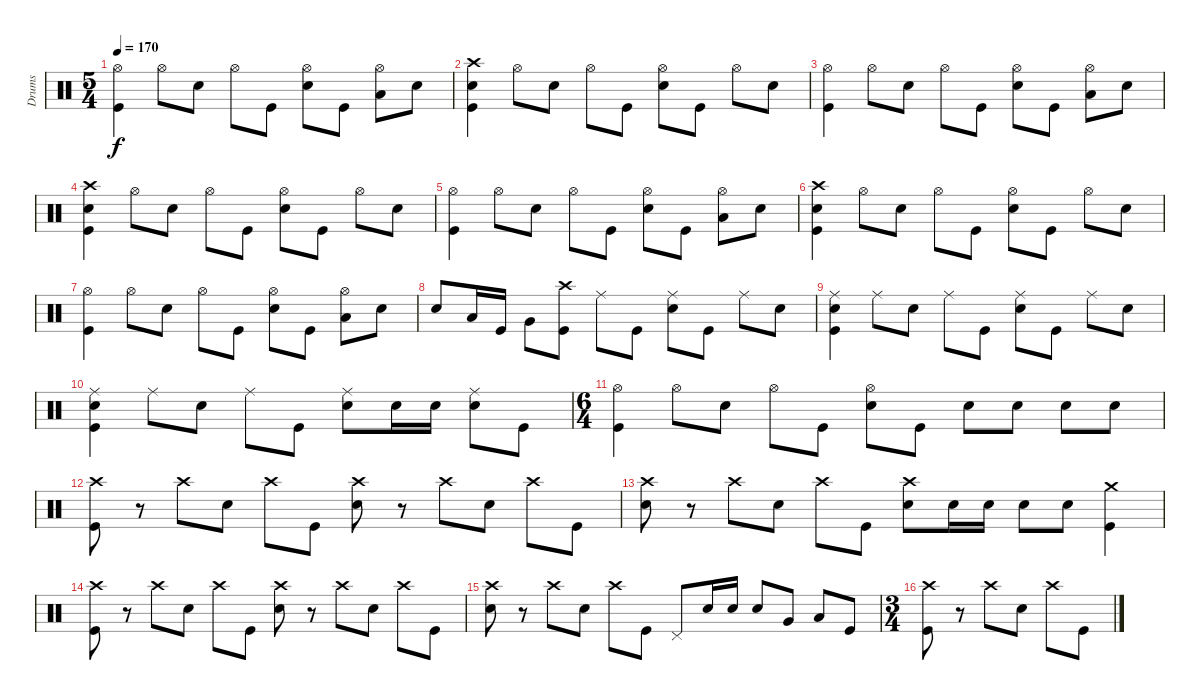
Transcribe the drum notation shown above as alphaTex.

\track ("Drums" "Drums") {instrument percussion}
\staff {score}
\articulation defaults
\ts (5 4)
\tempo 170
\clef neutral
\ks c
("Kick (hit)" "Hi-Hat (open)").4{dy f} "Hi-Hat (open)".8 "Snare (hit) 2".8 "Hi-Hat (open)".8 "Kick (hit)".8 ("Snare (hit) 2" "Hi-Hat (open)").8 "Kick (hit)".8 ("Low Tom (hit)" "Hi-Hat (open)").8 "Snare (hit) 2".8 |
("Kick (hit)" "Snare (hit) 2" "Crash high (hit)").4 "Hi-Hat (open)".8 "Snare (hit) 2".8 "Hi-Hat (open)".8 "Kick (hit)".8 ("Snare (hit) 2" "Hi-Hat (open)").8 "Kick (hit)".8 "Hi-Hat (open)".8 "Snare (hit) 2".8 |
("Kick (hit)" "Hi-Hat (open)").4 "Hi-Hat (open)".8 "Snare (hit) 2".8 "Hi-Hat (open)".8 "Kick (hit)".8 ("Snare (hit) 2" "Hi-Hat (open)").8 "Kick (hit)".8 ("Low Tom (hit)" "Hi-Hat (open)").8 "Snare (hit) 2".8 |
("Kick (hit)" "Snare (hit) 2" "Crash high (hit)").4 "Hi-Hat (open)".8 "Snare (hit) 2".8 "Hi-Hat (open)".8 "Kick (hit)".8 ("Snare (hit) 2" "Hi-Hat (open)").8 "Kick (hit)".8 "Hi-Hat (open)".8 "Snare (hit) 2".8 |
("Kick (hit)" "Hi-Hat (open)").4 "Hi-Hat (open)".8 "Snare (hit) 2".8 "Hi-Hat (open)".8 "Kick (hit)".8 ("Snare (hit) 2" "Hi-Hat (open)").8 "Kick (hit)".8 ("Low Tom (hit)" "Hi-Hat (open)").8 "Snare (hit) 2".8 |
("Kick (hit)" "Snare (hit) 2" "Crash high (hit)").4 "Hi-Hat (open)".8 "Snare (hit) 2".8 "Hi-Hat (open)".8 "Kick (hit)".8 ("Snare (hit) 2" "Hi-Hat (open)").8 "Kick (hit)".8 "Hi-Hat (open)".8 "Snare (hit) 2".8 |
("Kick (hit)" "Hi-Hat (open)").4 "Hi-Hat (open)".8 "Snare (hit) 2".8 "Hi-Hat (open)".8 "Kick (hit)".8 ("Snare (hit) 2" "Hi-Hat (open)").8 "Kick (hit)".8 ("Low Tom (hit)" "Hi-Hat (open)").8 "Snare (hit) 2".8 |
"Snare (hit) 2".8 "Low Tom (hit)".16 "Kick (hit)".16 "Very Low Tom (hit)".8 ("Kick (hit)" "Crash high (hit)").8 "Ride (middle)".8 "Kick (hit)".8 ("Snare (hit) 2" "Ride (middle)").8 "Kick (hit)".8 "Ride (middle)".8 "Snare (hit) 2".8 |
("Kick (hit)" "Snare (hit) 2" "Ride (middle)").4 "Ride (middle)".8 "Snare (hit) 2".8 "Ride (middle)".8 "Kick (hit)".8 ("Snare (hit) 2" "Ride (middle)").8 "Kick (hit)".8 "Ride (middle)".8 "Snare (hit) 2".8 |
("Kick (hit)" "Snare (hit) 2" "Ride (middle)").4 "Ride (middle)".8 "Snare (hit) 2".8 "Ride (middle)".8 "Kick (hit)".8 ("Snare (hit) 2" "Ride (middle)").8 "Snare (hit) 2".16 "Snare (hit) 2".16 ("Snare (hit) 2" "Ride (middle)").8 "Kick (hit)".8 |
\ts (6 4)
("Kick (hit)" "Hi-Hat (open)").4 "Hi-Hat (open)".8 "Snare (hit) 2".8 "Hi-Hat (open)".8 "Kick (hit)".8 ("Snare (hit) 2" "Hi-Hat (open)").8 "Kick (hit)".8 "Snare (hit) 2".8 "Snare (hit) 2".8 "Snare (hit) 2".8 "Snare (hit) 2".8 |
("Kick (hit)" "Crash high (hit)").8 r.8 "Crash high (hit)".8 "Snare (hit) 2".8 "Crash high (hit)".8 "Kick (hit)".8 ("Snare (hit) 2" "Crash high (hit)").8 r.8 "Crash high (hit)".8 "Snare (hit) 2".8 "Crash high (hit)".8 "Kick (hit)".8 |
("Snare (hit) 2" "Crash high (hit)").8 r.8 "Crash high (hit)".8 "Snare (hit) 2".8 "Crash high (hit)".8 "Kick (hit)".8 ("Snare (hit) 2" "Crash high (hit)").8 "Snare (hit) 2".16 "Snare (hit) 2".16 "Snare (hit) 2".8 "Snare (hit) 2".8 ("Kick (hit)" "Crash medium (hit)").4 |
("Kick (hit)" "Crash high (hit)").8 r.8 "Crash high (hit)".8 "Snare (hit) 2".8 "Crash high (hit)".8 "Kick (hit)".8 ("Snare (hit) 2" "Crash high (hit)").8 r.8 "Crash high (hit)".8 "Snare (hit) 2".8 "Crash high (hit)".8 "Kick (hit)".8 |
("Snare (hit) 2" "Crash high (hit)").8 r.8 "Crash high (hit)".8 "Snare (hit) 2".8 "Crash high (hit)".8 "Kick (hit)".8 "Pedal Hi-Hat (hit)".8 "Snare (hit) 2".16 "Snare (hit) 2".16 "Snare (hit) 2".8 "Very Low Tom (hit)".8 "Low Tom (hit)".8 "Kick (hit)".8 |
\ts (3 4)
("Kick (hit)" "Crash high (hit)").8 r.8 "Crash high (hit)".8 "Snare (hit) 2".8 "Crash high (hit)".8 "Kick (hit)".8
